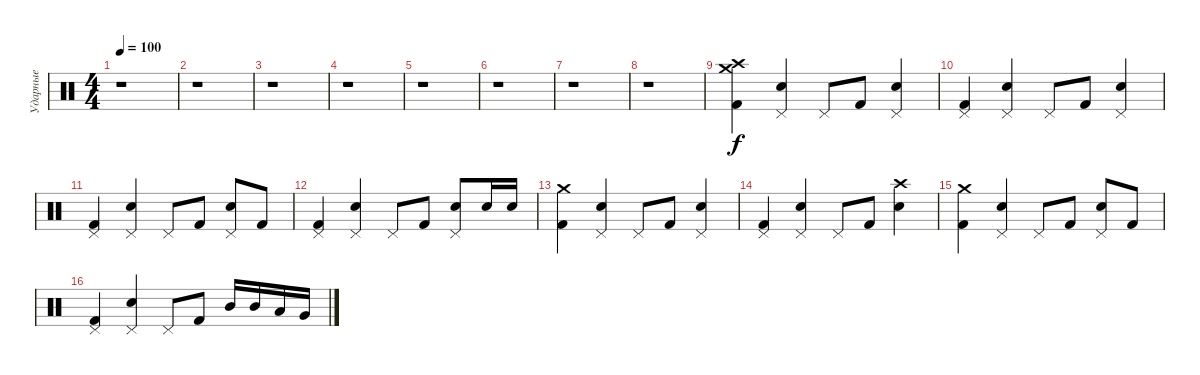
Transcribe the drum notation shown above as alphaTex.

\track ("Ударные" "Ударные") {instrument percussion}
\staff {score}
\articulation defaults
\ts (4 4)
\tempo 100
\clef neutral
\ks c
r.1{dy f} |
r.1 |
r.1 |
r.1 |
r.1 |
r.1 |
r.1 |
r.1 |
("Crash medium (hit)" "Crash high (hit)" "Kick (hit) 2").4 ("Pedal Hi-Hat (hit)" "Electric Snare (hit)").4 "Pedal Hi-Hat (hit)".8 "Kick (hit) 2".8 ("Pedal Hi-Hat (hit)" "Electric Snare (hit)").4 |
("Pedal Hi-Hat (hit)" "Kick (hit) 2").4 ("Pedal Hi-Hat (hit)" "Electric Snare (hit)").4 "Pedal Hi-Hat (hit)".8 "Kick (hit) 2".8 ("Pedal Hi-Hat (hit)" "Electric Snare (hit)").4 |
("Pedal Hi-Hat (hit)" "Kick (hit) 2").4 ("Pedal Hi-Hat (hit)" "Electric Snare (hit)").4 "Pedal Hi-Hat (hit)".8 "Kick (hit) 2".8 ("Pedal Hi-Hat (hit)" "Electric Snare (hit)").8 "Kick (hit) 2".8 |
("Pedal Hi-Hat (hit)" "Kick (hit) 2").4 ("Pedal Hi-Hat (hit)" "Electric Snare (hit)").4 "Pedal Hi-Hat (hit)".8 "Kick (hit) 2".8 ("Pedal Hi-Hat (hit)" "Electric Snare (hit)").8 "Electric Snare (hit)".16 "Electric Snare (hit)".16 |
("Crash medium (hit)" "Kick (hit) 2").4 ("Pedal Hi-Hat (hit)" "Electric Snare (hit)").4 "Pedal Hi-Hat (hit)".8 "Kick (hit) 2".8 ("Pedal Hi-Hat (hit)" "Electric Snare (hit)").4 |
("Pedal Hi-Hat (hit)" "Kick (hit) 2").4 ("Pedal Hi-Hat (hit)" "Electric Snare (hit)").4 "Pedal Hi-Hat (hit)".8 "Kick (hit) 2".8 ("Crash high (hit)" "Electric Snare (hit)").4 |
("Crash medium (hit)" "Kick (hit) 2").4 ("Pedal Hi-Hat (hit)" "Electric Snare (hit)").4 "Pedal Hi-Hat (hit)".8 "Kick (hit) 2".8 ("Pedal Hi-Hat (hit)" "Electric Snare (hit)").8 "Kick (hit) 2".8 |
("Pedal Hi-Hat (hit)" "Kick (hit) 2").4 ("Pedal Hi-Hat (hit)" "Electric Snare (hit)").4 "Pedal Hi-Hat (hit)".8 "Kick (hit) 2".8 "Mid Tom (hit)".16 "Mid Tom (hit)".16 "Low Tom (hit)".16 "Very Low Tom (hit)".16
